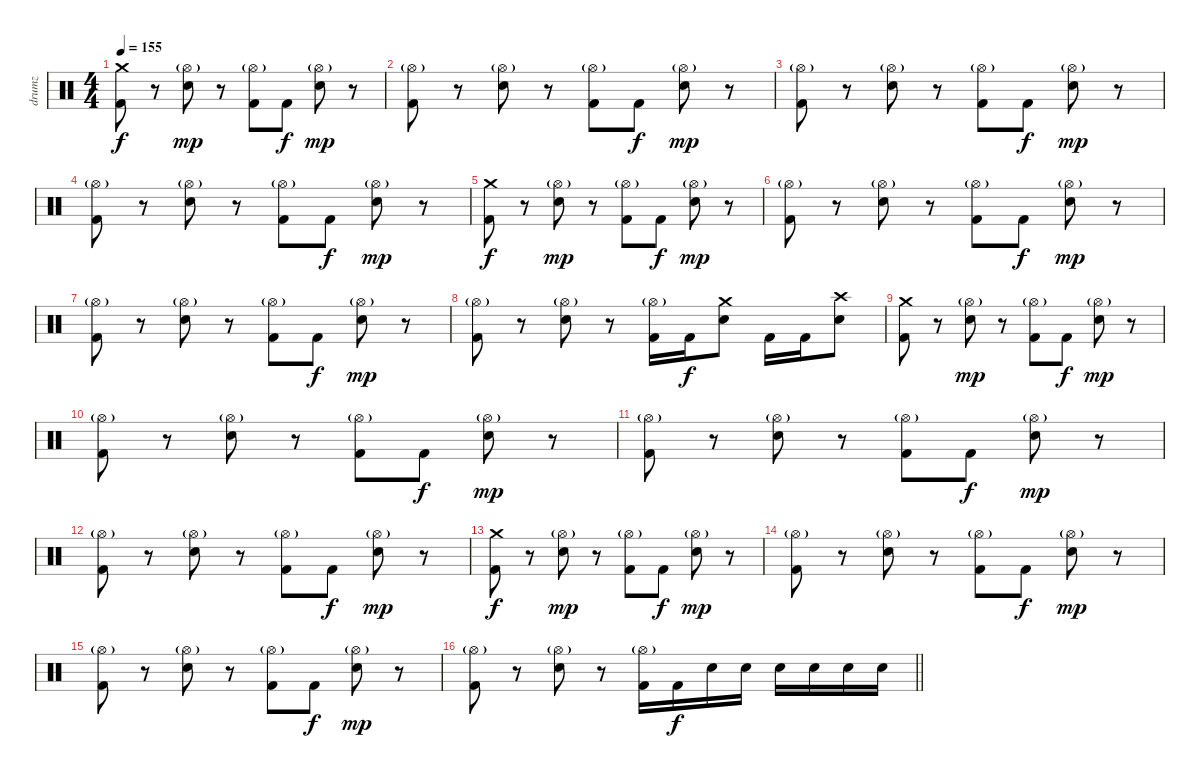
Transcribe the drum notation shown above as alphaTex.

\track ("drumz" "drumz") {instrument percussion}
\staff {score}
\articulation defaults
\ts (4 4)
\section ("" "")
\tempo 155
\clef neutral
\ks c
("Crash medium (hit)" "Kick (hit) 2").8{dy f} r.8 ("Hi-Hat (open)"{g} "Electric Snare (hit)").8{dy mp} r.8 ("Hi-Hat (open)"{g} "Kick (hit) 2").8 "Kick (hit) 2".8{dy f} ("Hi-Hat (open)"{g} "Electric Snare (hit)").8{dy mp} r.8 |
("Hi-Hat (open)"{g} "Kick (hit) 2").8 r.8 ("Hi-Hat (open)"{g} "Electric Snare (hit)").8 r.8 ("Hi-Hat (open)"{g} "Kick (hit) 2").8 "Kick (hit) 2".8{dy f} ("Hi-Hat (open)"{g} "Electric Snare (hit)").8{dy mp} r.8 |
("Hi-Hat (open)"{g} "Kick (hit) 2").8 r.8 ("Hi-Hat (open)"{g} "Electric Snare (hit)").8 r.8 ("Hi-Hat (open)"{g} "Kick (hit) 2").8 "Kick (hit) 2".8{dy f} ("Hi-Hat (open)"{g} "Electric Snare (hit)").8{dy mp} r.8 |
("Hi-Hat (open)"{g} "Kick (hit) 2").8 r.8 ("Hi-Hat (open)"{g} "Electric Snare (hit)").8 r.8 ("Hi-Hat (open)"{g} "Kick (hit) 2").8 "Kick (hit) 2".8{dy f} ("Hi-Hat (open)"{g} "Electric Snare (hit)").8{dy mp} r.8 |
("Crash medium (hit)" "Kick (hit) 2").8{dy f} r.8 ("Hi-Hat (open)"{g} "Electric Snare (hit)").8{dy mp} r.8 ("Hi-Hat (open)"{g} "Kick (hit) 2").8 "Kick (hit) 2".8{dy f} ("Hi-Hat (open)"{g} "Electric Snare (hit)").8{dy mp} r.8 |
("Hi-Hat (open)"{g} "Kick (hit) 2").8 r.8 ("Hi-Hat (open)"{g} "Electric Snare (hit)").8 r.8 ("Hi-Hat (open)"{g} "Kick (hit) 2").8 "Kick (hit) 2".8{dy f} ("Hi-Hat (open)"{g} "Electric Snare (hit)").8{dy mp} r.8 |
("Hi-Hat (open)"{g} "Kick (hit) 2").8 r.8 ("Hi-Hat (open)"{g} "Electric Snare (hit)").8 r.8 ("Hi-Hat (open)"{g} "Kick (hit) 2").8 "Kick (hit) 2".8{dy f} ("Hi-Hat (open)"{g} "Electric Snare (hit)").8{dy mp} r.8 |
("Hi-Hat (open)"{g} "Kick (hit) 2").8 r.8 ("Hi-Hat (open)"{g} "Electric Snare (hit)").8 r.8 ("Hi-Hat (open)"{g} "Kick (hit) 2").16 "Kick (hit) 2".16{dy f} ("Crash medium (hit)" "Electric Snare (hit)").8 "Kick (hit) 2".16 "Kick (hit) 2".16 ("Crash high (hit)" "Electric Snare (hit)").8 |
("Crash medium (hit)" "Kick (hit) 2").8 r.8 ("Hi-Hat (open)"{g} "Electric Snare (hit)").8{dy mp} r.8 ("Hi-Hat (open)"{g} "Kick (hit) 2").8 "Kick (hit) 2".8{dy f} ("Hi-Hat (open)"{g} "Electric Snare (hit)").8{dy mp} r.8 |
("Hi-Hat (open)"{g} "Kick (hit) 2").8 r.8 ("Hi-Hat (open)"{g} "Electric Snare (hit)").8 r.8 ("Hi-Hat (open)"{g} "Kick (hit) 2").8 "Kick (hit) 2".8{dy f} ("Hi-Hat (open)"{g} "Electric Snare (hit)").8{dy mp} r.8 |
("Hi-Hat (open)"{g} "Kick (hit) 2").8 r.8 ("Hi-Hat (open)"{g} "Electric Snare (hit)").8 r.8 ("Hi-Hat (open)"{g} "Kick (hit) 2").8 "Kick (hit) 2".8{dy f} ("Hi-Hat (open)"{g} "Electric Snare (hit)").8{dy mp} r.8 |
("Hi-Hat (open)"{g} "Kick (hit) 2").8 r.8 ("Hi-Hat (open)"{g} "Electric Snare (hit)").8 r.8 ("Hi-Hat (open)"{g} "Kick (hit) 2").8 "Kick (hit) 2".8{dy f} ("Hi-Hat (open)"{g} "Electric Snare (hit)").8{dy mp} r.8 |
("Crash medium (hit)" "Kick (hit) 2").8{dy f} r.8 ("Hi-Hat (open)"{g} "Electric Snare (hit)").8{dy mp} r.8 ("Hi-Hat (open)"{g} "Kick (hit) 2").8 "Kick (hit) 2".8{dy f} ("Hi-Hat (open)"{g} "Electric Snare (hit)").8{dy mp} r.8 |
("Hi-Hat (open)"{g} "Kick (hit) 2").8 r.8 ("Hi-Hat (open)"{g} "Electric Snare (hit)").8 r.8 ("Hi-Hat (open)"{g} "Kick (hit) 2").8 "Kick (hit) 2".8{dy f} ("Hi-Hat (open)"{g} "Electric Snare (hit)").8{dy mp} r.8 |
("Hi-Hat (open)"{g} "Kick (hit) 2").8 r.8 ("Hi-Hat (open)"{g} "Electric Snare (hit)").8 r.8 ("Hi-Hat (open)"{g} "Kick (hit) 2").8 "Kick (hit) 2".8{dy f} ("Hi-Hat (open)"{g} "Electric Snare (hit)").8{dy mp} r.8 |
\barLineRight lightlight
("Hi-Hat (open)"{g} "Kick (hit) 2").8 r.8 ("Hi-Hat (open)"{g} "Electric Snare (hit)").8 r.8 ("Hi-Hat (open)"{g} "Kick (hit) 2").16 "Kick (hit) 2".16{dy f} "Electric Snare (hit)".16 "Electric Snare (hit)".16 "Electric Snare (hit)".16 "Electric Snare (hit)".16 "Electric Snare (hit)".16 "Electric Snare (hit)".16
